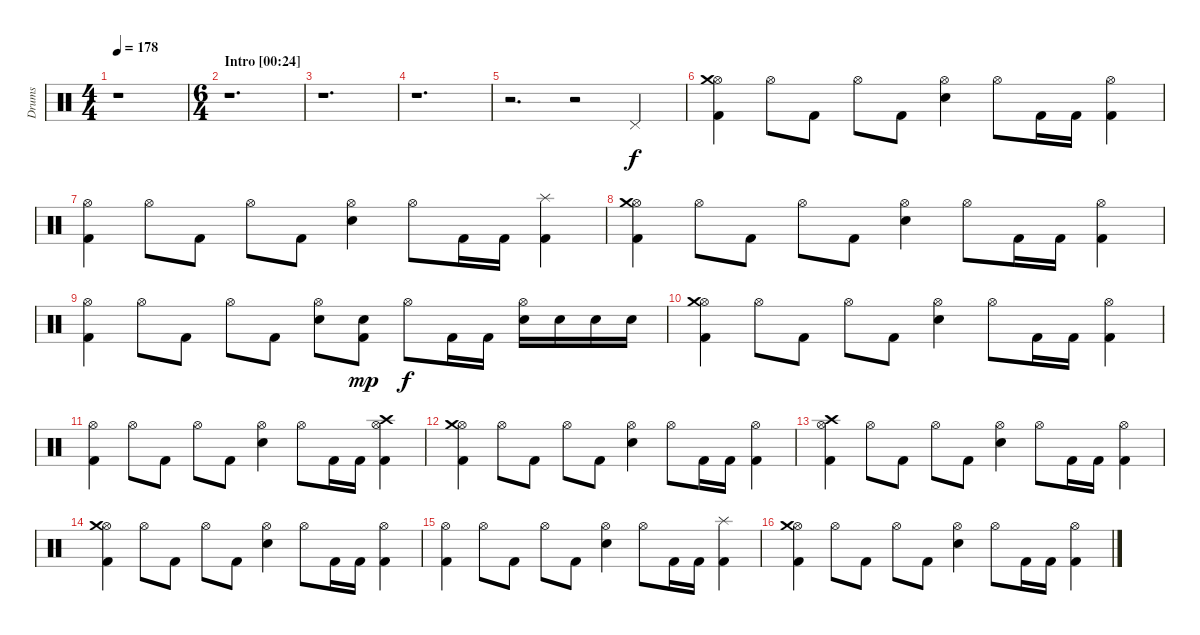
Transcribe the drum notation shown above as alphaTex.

\track ("Drums" "Drums") {instrument percussion}
\staff {score}
\articulation defaults
\ts (4 4)
\tempo 178
\clef neutral
\ks c
r.1{dy f} |
\ts (6 4)
\section ("" "Intro [00:24]")
r.1{d} |
r.1{d} |
r.1{d} |
r.2{d} r.2 "Pedal Hi-Hat (hit)".4 |
\section ("" "")
("Hi-Hat (open)" "Crash medium (hit)" "Kick (hit) 2").4 "Hi-Hat (open)".8 "Kick (hit) 2".8 "Hi-Hat (open)".8 "Kick (hit) 2".8 ("Hi-Hat (open)" "Electric Snare (hit)").4 "Hi-Hat (open)".8 "Kick (hit) 2".16 "Kick (hit) 2".16 ("Hi-Hat (open)" "Kick (hit) 2").4 |
("Hi-Hat (open)" "Kick (hit) 2").4 "Hi-Hat (open)".8 "Kick (hit) 2".8 "Hi-Hat (open)".8 "Kick (hit) 2".8 ("Hi-Hat (open)" "Electric Snare (hit)").4 "Hi-Hat (open)".8 "Kick (hit) 2".16 "Kick (hit) 2".16 ("Splash (hit)" "Kick (hit) 2").4 |
("Hi-Hat (open)" "Crash medium (hit)" "Kick (hit) 2").4 "Hi-Hat (open)".8 "Kick (hit) 2".8 "Hi-Hat (open)".8 "Kick (hit) 2".8 ("Hi-Hat (open)" "Electric Snare (hit)").4 "Hi-Hat (open)".8 "Kick (hit) 2".16 "Kick (hit) 2".16 ("Hi-Hat (open)" "Kick (hit) 2").4 |
("Hi-Hat (open)" "Kick (hit) 2").4 "Hi-Hat (open)".8 "Kick (hit) 2".8 "Hi-Hat (open)".8 "Kick (hit) 2".8 ("Hi-Hat (open)" "Electric Snare (hit)").8 ("Snare (hit) 2" "Kick (hit) 2").8{dy mp} "Hi-Hat (open)".8{dy f} "Kick (hit) 2".16 "Kick (hit) 2".16 ("Hi-Hat (open)" "Electric Snare (hit)").16 "Electric Snare (hit)".16 "Electric Snare (hit)".16 "Electric Snare (hit)".16 |
\section ("" "")
("Hi-Hat (open)" "Crash medium (hit)" "Kick (hit) 2").4 "Hi-Hat (open)".8 "Kick (hit) 2".8 "Hi-Hat (open)".8 "Kick (hit) 2".8 ("Hi-Hat (open)" "Electric Snare (hit)").4 "Hi-Hat (open)".8 "Kick (hit) 2".16 "Kick (hit) 2".16 ("Hi-Hat (open)" "Kick (hit) 2").4 |
("Hi-Hat (open)" "Kick (hit) 2").4 "Hi-Hat (open)".8 "Kick (hit) 2".8 "Hi-Hat (open)".8 "Kick (hit) 2".8 ("Hi-Hat (open)" "Electric Snare (hit)").4 "Hi-Hat (open)".8 "Kick (hit) 2".16 "Kick (hit) 2".16 ("Hi-Hat (open)" "Crash high (hit)" "Kick (hit) 2").4 |
("Hi-Hat (open)" "Crash medium (hit)" "Kick (hit) 2").4 "Hi-Hat (open)".8 "Kick (hit) 2".8 "Hi-Hat (open)".8 "Kick (hit) 2".8 ("Hi-Hat (open)" "Electric Snare (hit)").4 "Hi-Hat (open)".8 "Kick (hit) 2".16 "Kick (hit) 2".16 ("Hi-Hat (open)" "Kick (hit) 2").4 |
("Hi-Hat (open)" "Crash high (hit)" "Kick (hit) 2").4 "Hi-Hat (open)".8 "Kick (hit) 2".8 "Hi-Hat (open)".8 "Kick (hit) 2".8 ("Hi-Hat (open)" "Electric Snare (hit)").4 "Hi-Hat (open)".8 "Kick (hit) 2".16 "Kick (hit) 2".16 ("Hi-Hat (open)" "Kick (hit) 2").4 |
\section ("" "")
("Hi-Hat (open)" "Crash medium (hit)" "Kick (hit) 2").4 "Hi-Hat (open)".8 "Kick (hit) 2".8 "Hi-Hat (open)".8 "Kick (hit) 2".8 ("Hi-Hat (open)" "Electric Snare (hit)").4 "Hi-Hat (open)".8 "Kick (hit) 2".16 "Kick (hit) 2".16 ("Hi-Hat (open)" "Kick (hit) 2").4 |
("Hi-Hat (open)" "Kick (hit) 2").4 "Hi-Hat (open)".8 "Kick (hit) 2".8 "Hi-Hat (open)".8 "Kick (hit) 2".8 ("Hi-Hat (open)" "Electric Snare (hit)").4 "Hi-Hat (open)".8 "Kick (hit) 2".16 "Kick (hit) 2".16 ("Splash (hit)" "Kick (hit) 2").4 |
("Hi-Hat (open)" "Crash medium (hit)" "Kick (hit) 2").4 "Hi-Hat (open)".8 "Kick (hit) 2".8 "Hi-Hat (open)".8 "Kick (hit) 2".8 ("Hi-Hat (open)" "Electric Snare (hit)").4 "Hi-Hat (open)".8 "Kick (hit) 2".16 "Kick (hit) 2".16 ("Hi-Hat (open)" "Kick (hit) 2").4
